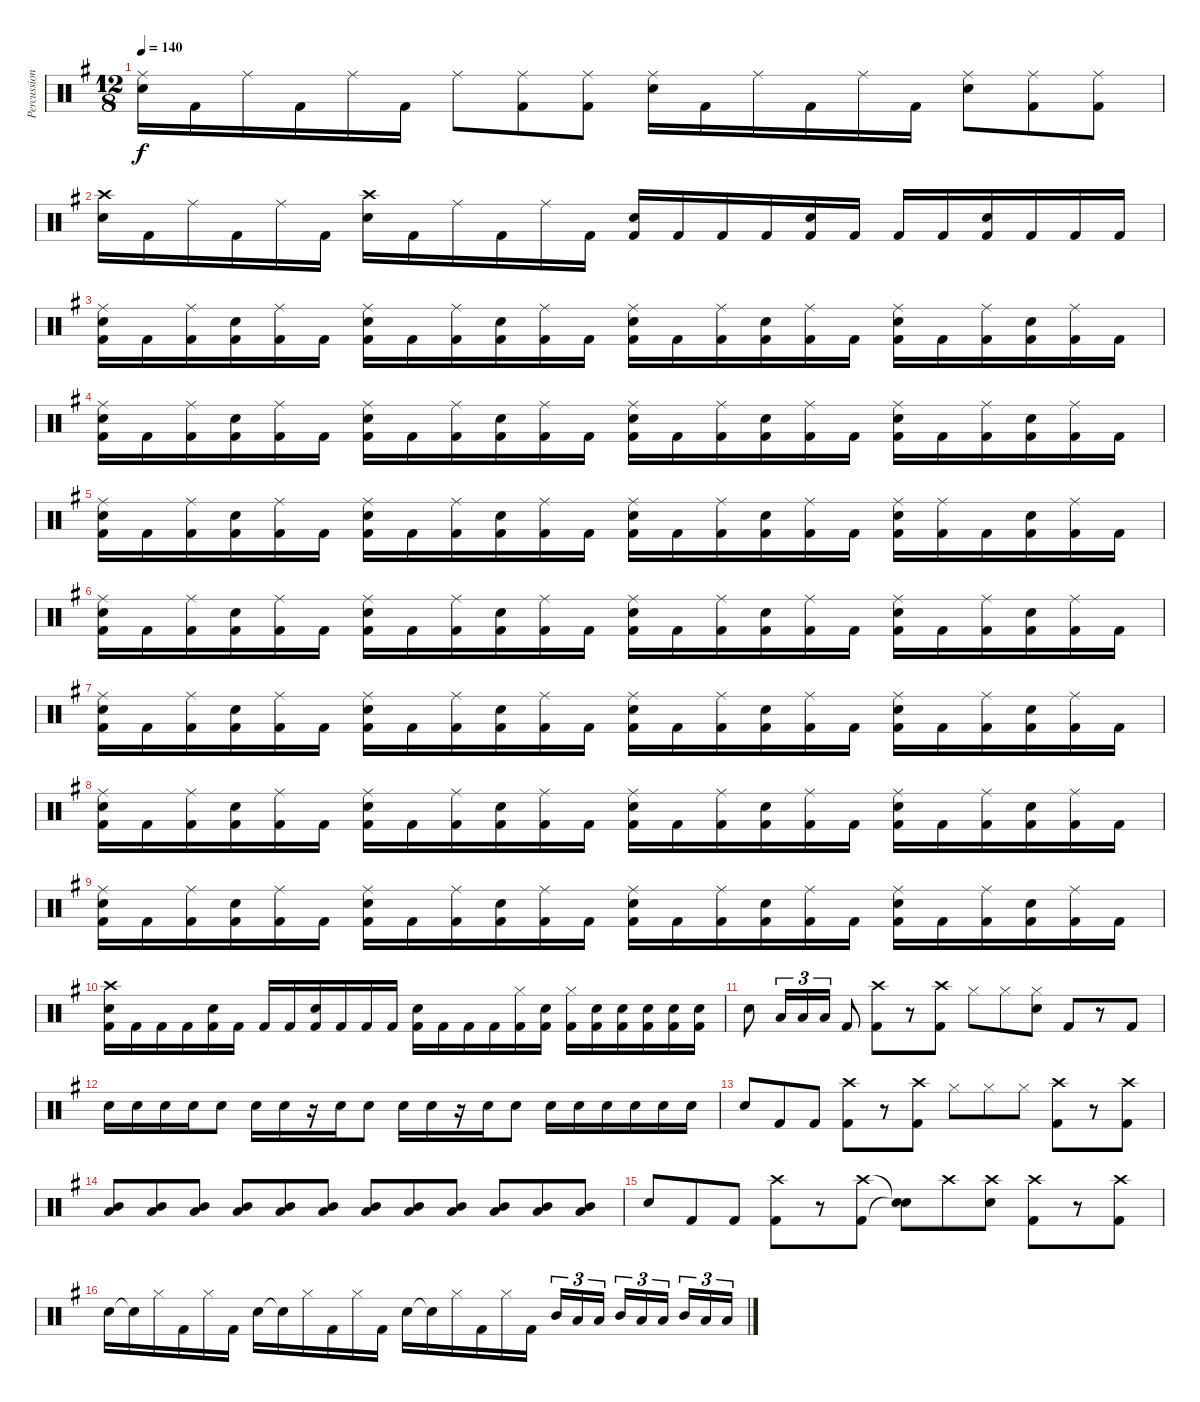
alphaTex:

\track ("Percussion" "Percussion") {instrument percussion}
\staff {score}
\articulation defaults
\ts (12 8)
\tempo 140
\clef neutral
\ks g
("Ride (middle)" "Snare (hit) 2").16{dy f} "Kick (hit) 2".16 "Ride (middle)".16 "Kick (hit) 2".16 "Ride (middle)".16 "Kick (hit) 2".16 "Ride (middle)".8 ("Ride (middle)" "Kick (hit) 2").8 ("Ride (middle)" "Kick (hit) 2").8 ("Ride (middle)" "Snare (hit) 2").16 "Kick (hit) 2".16 "Ride (middle)".16 "Kick (hit) 2".16 "Ride (middle)".16 "Kick (hit) 2".16 ("Ride (middle)" "Snare (hit) 2").8 ("Ride (middle)" "Kick (hit) 2").8 ("Ride (middle)" "Kick (hit) 2").8 |
("Crash high (hit)" "Snare (hit) 2").16 "Kick (hit) 2".16 "Ride (middle)".16 "Kick (hit) 2".16 "Ride (middle)".16 "Kick (hit) 2".16 ("Crash high (hit)" "Snare (hit) 2").16 "Kick (hit) 2".16 "Ride (middle)".16 "Kick (hit) 2".16 "Ride (middle)".16 "Kick (hit) 2".16 ("Snare (hit) 2" "Kick (hit) 2").16 "Kick (hit) 2".16 "Kick (hit) 2".16 "Kick (hit) 2".16 ("Snare (hit) 2" "Kick (hit) 2").16 "Kick (hit) 2".16 "Kick (hit) 2".16 "Kick (hit) 2".16 ("Snare (hit) 2" "Kick (hit) 2").16 "Kick (hit) 2".16 "Kick (hit) 2".16 "Kick (hit) 2".16 |
("Ride (middle)" "Snare (hit) 2" "Kick (hit) 2").16 "Kick (hit) 2".16 ("Ride (middle)" "Kick (hit) 2").16 ("Snare (hit) 2" "Kick (hit) 2").16 ("Ride (middle)" "Kick (hit) 2").16 "Kick (hit) 2".16 ("Ride (middle)" "Snare (hit) 2" "Kick (hit) 2").16 "Kick (hit) 2".16 ("Ride (middle)" "Kick (hit) 2").16 ("Snare (hit) 2" "Kick (hit) 2").16 ("Ride (middle)" "Kick (hit) 2").16 "Kick (hit) 2".16 ("Ride (middle)" "Snare (hit) 2" "Kick (hit) 2").16 "Kick (hit) 2".16 ("Ride (middle)" "Kick (hit) 2").16 ("Snare (hit) 2" "Kick (hit) 2").16 ("Ride (middle)" "Kick (hit) 2").16 "Kick (hit) 2".16 ("Ride (middle)" "Snare (hit) 2" "Kick (hit) 2").16 "Kick (hit) 2".16 ("Ride (middle)" "Kick (hit) 2").16 ("Snare (hit) 2" "Kick (hit) 2").16 ("Ride (middle)" "Kick (hit) 2").16 "Kick (hit) 2".16 |
("Ride (middle)" "Snare (hit) 2" "Kick (hit) 2").16 "Kick (hit) 2".16 ("Ride (middle)" "Kick (hit) 2").16 ("Snare (hit) 2" "Kick (hit) 2").16 ("Ride (middle)" "Kick (hit) 2").16 "Kick (hit) 2".16 ("Ride (middle)" "Snare (hit) 2" "Kick (hit) 2").16 "Kick (hit) 2".16 ("Ride (middle)" "Kick (hit) 2").16 ("Snare (hit) 2" "Kick (hit) 2").16 ("Ride (middle)" "Kick (hit) 2").16 "Kick (hit) 2".16 ("Ride (middle)" "Snare (hit) 2" "Kick (hit) 2").16 "Kick (hit) 2".16 ("Ride (middle)" "Kick (hit) 2").16 ("Snare (hit) 2" "Kick (hit) 2").16 ("Ride (middle)" "Kick (hit) 2").16 "Kick (hit) 2".16 ("Ride (middle)" "Snare (hit) 2" "Kick (hit) 2").16 "Kick (hit) 2".16 ("Ride (middle)" "Kick (hit) 2").16 ("Snare (hit) 2" "Kick (hit) 2").16 ("Ride (middle)" "Kick (hit) 2").16 "Kick (hit) 2".16 |
("Ride (middle)" "Snare (hit) 2" "Kick (hit) 2").16 "Kick (hit) 2".16 ("Ride (middle)" "Kick (hit) 2").16 ("Snare (hit) 2" "Kick (hit) 2").16 ("Ride (middle)" "Kick (hit) 2").16 "Kick (hit) 2".16 ("Ride (middle)" "Snare (hit) 2" "Kick (hit) 2").16 "Kick (hit) 2".16 ("Ride (middle)" "Kick (hit) 2").16 ("Snare (hit) 2" "Kick (hit) 2").16 ("Ride (middle)" "Kick (hit) 2").16 "Kick (hit) 2".16 ("Ride (middle)" "Snare (hit) 2" "Kick (hit) 2").16 "Kick (hit) 2".16 ("Ride (middle)" "Kick (hit) 2").16 ("Snare (hit) 2" "Kick (hit) 2").16 ("Ride (middle)" "Kick (hit) 2").16 "Kick (hit) 2".16 ("Ride (middle)" "Snare (hit) 2" "Kick (hit) 2").16 ("Ride (middle)" "Kick (hit) 2").16 "Kick (hit) 2".16 ("Snare (hit) 2" "Kick (hit) 2").16 ("Ride (middle)" "Kick (hit) 2").16 "Kick (hit) 2".16 |
("Ride (middle)" "Snare (hit) 2" "Kick (hit) 2").16 "Kick (hit) 2".16 ("Ride (middle)" "Kick (hit) 2").16 ("Snare (hit) 2" "Kick (hit) 2").16 ("Ride (middle)" "Kick (hit) 2").16 "Kick (hit) 2".16 ("Ride (middle)" "Snare (hit) 2" "Kick (hit) 2").16 "Kick (hit) 2".16 ("Ride (middle)" "Kick (hit) 2").16 ("Snare (hit) 2" "Kick (hit) 2").16 ("Ride (middle)" "Kick (hit) 2").16 "Kick (hit) 2".16 ("Ride (middle)" "Snare (hit) 2" "Kick (hit) 2").16 "Kick (hit) 2".16 ("Ride (middle)" "Kick (hit) 2").16 ("Snare (hit) 2" "Kick (hit) 2").16 ("Ride (middle)" "Kick (hit) 2").16 "Kick (hit) 2".16 ("Ride (middle)" "Snare (hit) 2" "Kick (hit) 2").16 "Kick (hit) 2".16 ("Ride (middle)" "Kick (hit) 2").16 ("Snare (hit) 2" "Kick (hit) 2").16 ("Ride (middle)" "Kick (hit) 2").16 "Kick (hit) 2".16 |
("Ride (middle)" "Snare (hit) 2" "Kick (hit) 2").16 "Kick (hit) 2".16 ("Ride (middle)" "Kick (hit) 2").16 ("Snare (hit) 2" "Kick (hit) 2").16 ("Ride (middle)" "Kick (hit) 2").16 "Kick (hit) 2".16 ("Ride (middle)" "Snare (hit) 2" "Kick (hit) 2").16 "Kick (hit) 2".16 ("Ride (middle)" "Kick (hit) 2").16 ("Snare (hit) 2" "Kick (hit) 2").16 ("Ride (middle)" "Kick (hit) 2").16 "Kick (hit) 2".16 ("Ride (middle)" "Snare (hit) 2" "Kick (hit) 2").16 "Kick (hit) 2".16 ("Ride (middle)" "Kick (hit) 2").16 ("Snare (hit) 2" "Kick (hit) 2").16 ("Ride (middle)" "Kick (hit) 2").16 "Kick (hit) 2".16 ("Ride (middle)" "Snare (hit) 2" "Kick (hit) 2").16 "Kick (hit) 2".16 ("Ride (middle)" "Kick (hit) 2").16 ("Snare (hit) 2" "Kick (hit) 2").16 ("Ride (middle)" "Kick (hit) 2").16 "Kick (hit) 2".16 |
("Ride (middle)" "Snare (hit) 2" "Kick (hit) 2").16 "Kick (hit) 2".16 ("Ride (middle)" "Kick (hit) 2").16 ("Snare (hit) 2" "Kick (hit) 2").16 ("Ride (middle)" "Kick (hit) 2").16 "Kick (hit) 2".16 ("Ride (middle)" "Snare (hit) 2" "Kick (hit) 2").16 "Kick (hit) 2".16 ("Ride (middle)" "Kick (hit) 2").16 ("Snare (hit) 2" "Kick (hit) 2").16 ("Ride (middle)" "Kick (hit) 2").16 "Kick (hit) 2".16 ("Ride (middle)" "Snare (hit) 2" "Kick (hit) 2").16 "Kick (hit) 2".16 ("Ride (middle)" "Kick (hit) 2").16 ("Snare (hit) 2" "Kick (hit) 2").16 ("Ride (middle)" "Kick (hit) 2").16 "Kick (hit) 2".16 ("Ride (middle)" "Snare (hit) 2" "Kick (hit) 2").16 "Kick (hit) 2".16 ("Ride (middle)" "Kick (hit) 2").16 ("Snare (hit) 2" "Kick (hit) 2").16 ("Ride (middle)" "Kick (hit) 2").16 "Kick (hit) 2".16 |
("Ride (middle)" "Snare (hit) 2" "Kick (hit) 2").16 "Kick (hit) 2".16 ("Ride (middle)" "Kick (hit) 2").16 ("Snare (hit) 2" "Kick (hit) 2").16 ("Ride (middle)" "Kick (hit) 2").16 "Kick (hit) 2".16 ("Ride (middle)" "Snare (hit) 2" "Kick (hit) 2").16 "Kick (hit) 2".16 ("Ride (middle)" "Kick (hit) 2").16 ("Snare (hit) 2" "Kick (hit) 2").16 ("Ride (middle)" "Kick (hit) 2").16 "Kick (hit) 2".16 ("Ride (middle)" "Snare (hit) 2" "Kick (hit) 2").16 "Kick (hit) 2".16 ("Ride (middle)" "Kick (hit) 2").16 ("Snare (hit) 2" "Kick (hit) 2").16 ("Ride (middle)" "Kick (hit) 2").16 "Kick (hit) 2".16 ("Ride (middle)" "Snare (hit) 2" "Kick (hit) 2").16 "Kick (hit) 2".16 ("Ride (middle)" "Kick (hit) 2").16 ("Snare (hit) 2" "Kick (hit) 2").16 ("Ride (middle)" "Kick (hit) 2").16 "Kick (hit) 2".16 |
("Crash high (hit)" "Snare (hit) 2" "Kick (hit) 2").16 "Kick (hit) 2".16 "Kick (hit) 2".16 "Kick (hit) 2".16 ("Snare (hit) 2" "Kick (hit) 2").16 "Kick (hit) 2".16 "Kick (hit) 2".16 "Kick (hit) 2".16 ("Snare (hit) 2" "Kick (hit) 2").16 "Kick (hit) 2".16 "Kick (hit) 2".16 "Kick (hit) 2".16 ("Snare (hit) 2" "Kick (hit) 2").16 "Kick (hit) 2".16 "Kick (hit) 2".16 "Kick (hit) 2".16 ("Hi-Hat (closed)" "Kick (hit) 2").16 ("Snare (hit) 2" "Kick (hit) 2").16 ("Hi-Hat (closed)" "Kick (hit) 2").16 ("Snare (hit) 2" "Kick (hit) 2").16 ("Snare (hit) 2" "Kick (hit) 2").16 ("Snare (hit) 2" "Kick (hit) 2").16 ("Snare (hit) 2" "Kick (hit) 2").16 ("Snare (hit) 2" "Kick (hit) 2").16 |
"Snare (hit) 2".8 "Low Tom (hit)".16{tu (3 2)} "Low Tom (hit)".16{tu (3 2)} "Low Tom (hit)".16{tu (3 2)} "Kick (hit) 2".8 ("Crash high (hit)" "Kick (hit) 2").8 r.8 ("Crash high (hit)" "Kick (hit) 2").8 "Hi-Hat (closed)".8 "Hi-Hat (closed)".8 ("Hi-Hat (closed)" "Snare (hit) 2").8 "Kick (hit) 2".8 r.8 "Kick (hit) 2".8 |
"Snare (hit) 2".16 "Snare (hit) 2".16 "Snare (hit) 2".16 "Snare (hit) 2".16 "Snare (hit) 2".8 "Snare (hit) 2".16 "Snare (hit) 2".16 r.16 "Snare (hit) 2".16 "Snare (hit) 2".8 "Snare (hit) 2".16 "Snare (hit) 2".16 r.16 "Snare (hit) 2".16 "Snare (hit) 2".8 "Snare (hit) 2".16 "Snare (hit) 2".16 "Snare (hit) 2".16 "Snare (hit) 2".16 "Snare (hit) 2".16 "Snare (hit) 2".16 |
"Snare (hit) 2".8 "Kick (hit) 2".8 "Kick (hit) 2".8 ("Crash high (hit)" "Kick (hit) 2").8 r.8 ("Crash high (hit)" "Kick (hit) 2").8 "Hi-Hat (closed)".8 "Hi-Hat (closed)".8 "Hi-Hat (closed)".8 ("Crash high (hit)" "Kick (hit) 2").8 r.8 ("Crash high (hit)" "Kick (hit) 2").8 |
("Mid Tom (hit)" "Low Tom (hit)").8 ("Mid Tom (hit)" "Low Tom (hit)").8 ("Mid Tom (hit)" "Low Tom (hit)").8 ("Mid Tom (hit)" "Low Tom (hit)").8 ("Mid Tom (hit)" "Low Tom (hit)").8 ("Mid Tom (hit)" "Low Tom (hit)").8 ("Mid Tom (hit)" "Low Tom (hit)").8 ("Mid Tom (hit)" "Low Tom (hit)").8 ("Mid Tom (hit)" "Low Tom (hit)").8 ("Mid Tom (hit)" "Low Tom (hit)").8 ("Mid Tom (hit)" "Low Tom (hit)").8 ("Mid Tom (hit)" "Low Tom (hit)").8 |
"Snare (hit) 2".8 "Kick (hit) 2".8 "Kick (hit) 2".8 ("Crash high (hit)" "Kick (hit) 2").8 r.8 ("Crash high (hit)" "Kick (hit) 2").8 ("Snare (hit)"{t} "Snare (hit)"{t}).8 "Crash high (hit)".8 ("Crash high (hit)" "Snare (hit) 2").8 ("Crash high (hit)" "Kick (hit) 2").8 r.8 ("Crash high (hit)" "Kick (hit) 2").8 |
"Snare (hit) 2".16 "Snare (hit)"{t}.16 "Hi-Hat (closed)".16 "Kick (hit) 2".16 "Hi-Hat (closed)".16 "Kick (hit) 2".16 "Snare (hit) 2".16 "Snare (hit)"{t}.16 "Hi-Hat (closed)".16 "Kick (hit) 2".16 "Hi-Hat (closed)".16 "Kick (hit) 2".16 "Snare (hit) 2".16 "Snare (hit)"{t}.16 "Hi-Hat (closed)".16 "Kick (hit) 2".16 "Hi-Hat (closed)".16 "Kick (hit) 2".16 "Mid Tom (hit)".16{tu (3 2)} "Low Tom (hit)".16{tu (3 2)} "Low Tom (hit)".16{tu (3 2) beam splitsecondary} "Mid Tom (hit)".16{tu (3 2)} "Low Tom (hit)".16{tu (3 2)} "Low Tom (hit)".16{tu (3 2) beam splitsecondary} "Mid Tom (hit)".16{tu (3 2)} "Low Tom (hit)".16{tu (3 2)} "Low Tom (hit)".16{tu (3 2)}
